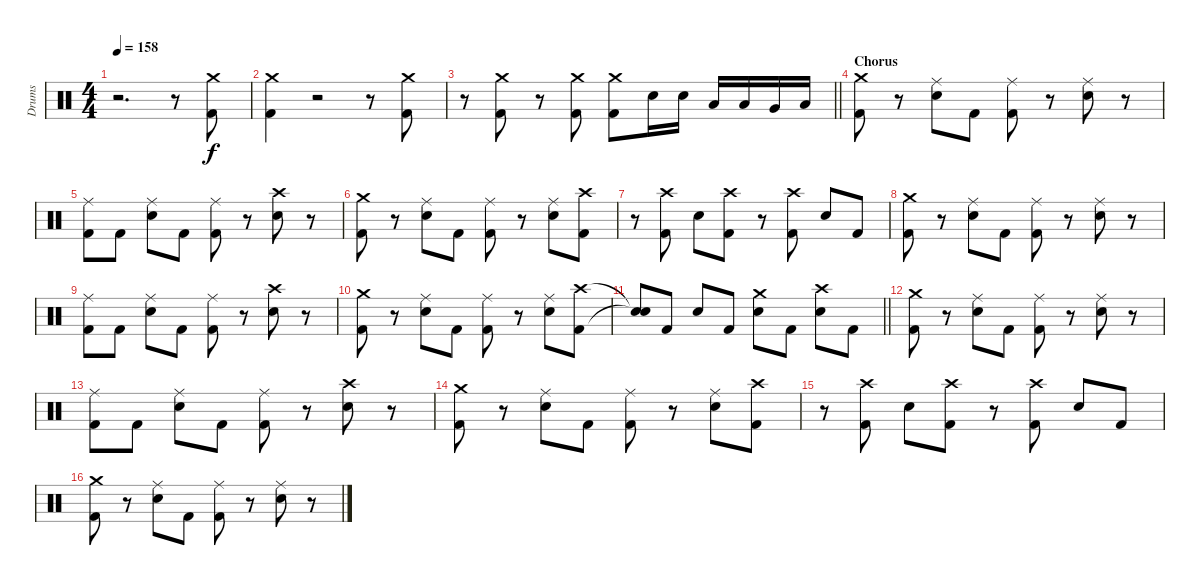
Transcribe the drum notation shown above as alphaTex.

\track ("Drums" "Drums") {instrument percussion}
\staff {score}
\articulation defaults
\ts (4 4)
\tempo 158
\clef neutral
\ks c
r.2{d dy f} r.8 ("Crash medium (hit)" "Kick (hit) 2").8 |
("Crash medium (hit)" "Kick (hit) 2").4 r.2 r.8 ("Crash medium (hit)" "Kick (hit) 2").8 |
\barLineRight lightlight
r.8 ("Crash medium (hit)" "Kick (hit) 2").8 r.8 ("Crash medium (hit)" "Kick (hit) 2").8 ("Crash medium (hit)" "Kick (hit) 2").8 "Electric Snare (hit)".16 "Electric Snare (hit)".16 "Low Tom (hit)".16 "Low Tom (hit)".16 "Very Low Tom (hit)".16 "Low Floor Tom (hit)".16 |
\section ("" "Chorus")
("Crash medium (hit)" "Kick (hit) 2").8 r.8 ("Ride (middle)" "Electric Snare (hit)").8 "Kick (hit) 2".8 ("Ride (middle)" "Kick (hit) 2").8 r.8 ("Ride (middle)" "Electric Snare (hit)").8 r.8 |
("Ride (middle)" "Kick (hit) 2").8 "Kick (hit) 2".8 ("Ride (middle)" "Electric Snare (hit)").8 "Kick (hit) 2".8 ("Ride (middle)" "Kick (hit) 2").8 r.8 ("Crash high (hit)" "Electric Snare (hit)").8 r.8 |
("Crash medium (hit)" "Kick (hit) 2").8 r.8 ("Ride (middle)" "Electric Snare (hit)").8 "Kick (hit) 2".8 ("Ride (middle)" "Kick (hit) 2").8 r.8 ("Ride (middle)" "Electric Snare (hit)").8 ("Crash high (hit)" "Kick (hit) 2").8 |
r.8 ("Crash high (hit)" "Kick (hit) 2").8 "Electric Snare (hit)".8 ("Crash high (hit)" "Kick (hit) 2").8 r.8 ("Crash high (hit)" "Kick (hit) 2").8 "Electric Snare (hit)".8 "Kick (hit) 2".8 |
("Crash medium (hit)" "Kick (hit) 2").8 r.8 ("Ride (middle)" "Electric Snare (hit)").8 "Kick (hit) 2".8 ("Ride (middle)" "Kick (hit) 2").8 r.8 ("Ride (middle)" "Electric Snare (hit)").8 r.8 |
("Ride (middle)" "Kick (hit) 2").8 "Kick (hit) 2".8 ("Ride (middle)" "Electric Snare (hit)").8 "Kick (hit) 2".8 ("Ride (middle)" "Kick (hit) 2").8 r.8 ("Crash high (hit)" "Electric Snare (hit)").8 r.8 |
("Crash medium (hit)" "Kick (hit) 2").8 r.8 ("Ride (middle)" "Electric Snare (hit)").8 "Kick (hit) 2".8 ("Ride (middle)" "Kick (hit) 2").8 r.8 ("Ride (middle)" "Electric Snare (hit)").8 ("Crash high (hit)" "Kick (hit) 2").8 |
\barLineRight lightlight
("Snare (hit)"{t} "Snare (hit)"{t}).8 "Kick (hit) 2".8 "Electric Snare (hit)".8 "Kick (hit) 2".8 ("Crash medium (hit)" "Electric Snare (hit)").8 "Kick (hit) 2".8 ("Crash high (hit)" "Electric Snare (hit)").8 "Kick (hit) 2".8 |
("Crash medium (hit)" "Kick (hit) 2").8 r.8 ("Ride (middle)" "Electric Snare (hit)").8 "Kick (hit) 2".8 ("Ride (middle)" "Kick (hit) 2").8 r.8 ("Ride (middle)" "Electric Snare (hit)").8 r.8 |
("Ride (middle)" "Kick (hit) 2").8 "Kick (hit) 2".8 ("Ride (middle)" "Electric Snare (hit)").8 "Kick (hit) 2".8 ("Ride (middle)" "Kick (hit) 2").8 r.8 ("Crash high (hit)" "Electric Snare (hit)").8 r.8 |
("Crash medium (hit)" "Kick (hit) 2").8 r.8 ("Ride (middle)" "Electric Snare (hit)").8 "Kick (hit) 2".8 ("Ride (middle)" "Kick (hit) 2").8 r.8 ("Ride (middle)" "Electric Snare (hit)").8 ("Crash high (hit)" "Kick (hit) 2").8 |
r.8 ("Crash high (hit)" "Kick (hit) 2").8 "Electric Snare (hit)".8 ("Crash high (hit)" "Kick (hit) 2").8 r.8 ("Crash high (hit)" "Kick (hit) 2").8 "Electric Snare (hit)".8 "Kick (hit) 2".8 |
("Crash medium (hit)" "Kick (hit) 2").8 r.8 ("Ride (middle)" "Electric Snare (hit)").8 "Kick (hit) 2".8 ("Ride (middle)" "Kick (hit) 2").8 r.8 ("Ride (middle)" "Electric Snare (hit)").8 r.8
